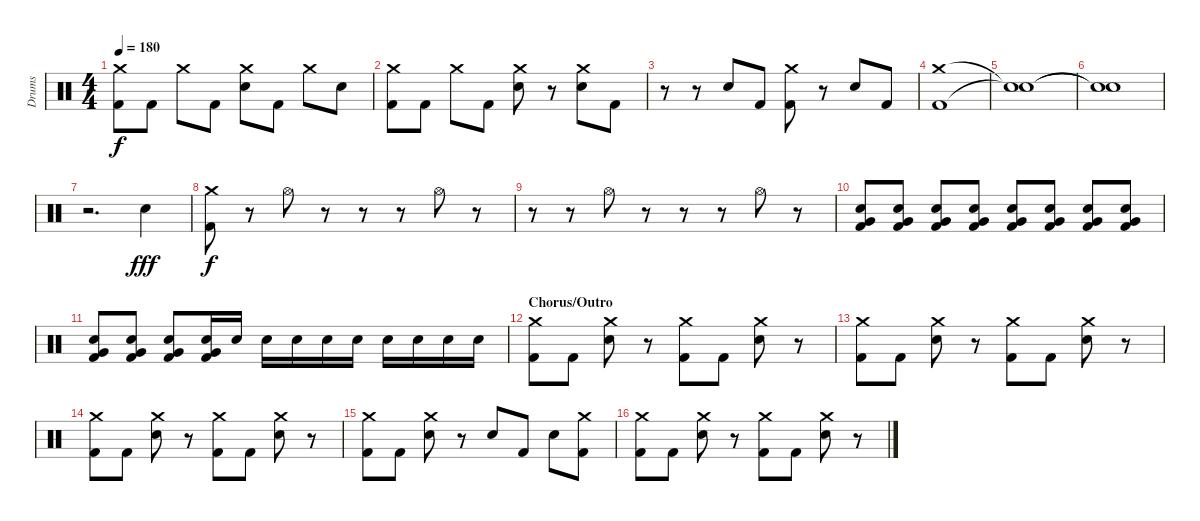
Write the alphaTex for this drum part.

\track ("Drums" "Drums") {instrument percussion}
\staff {score}
\articulation defaults
\ts (4 4)
\tempo 180
\clef neutral
\ks c
("Crash medium (hit)" "Kick (hit) 2").8{dy f} "Kick (hit) 2".8 "Crash medium (hit)".8 "Kick (hit) 2".8 ("Crash medium (hit)" "Electric Snare (hit)").8 "Kick (hit) 2".8 "Crash medium (hit)".8 "Electric Snare (hit)".8 |
("Crash medium (hit)" "Kick (hit) 2").8 "Kick (hit) 2".8 "Crash medium (hit)".8 "Kick (hit) 2".8 ("Crash medium (hit)" "Electric Snare (hit)").8 r.8 ("Crash medium (hit)" "Electric Snare (hit)").8 "Kick (hit) 2".8 |
r.8 r.8 "Electric Snare (hit)".8 "Kick (hit) 2".8 ("Crash medium (hit)" "Kick (hit) 2").8 r.8 "Electric Snare (hit)".8 "Kick (hit) 2".8 |
("Crash medium (hit)" "Kick (hit) 2").1 |
("Snare (hit)"{t} "Snare (hit)"{t}).1 |
("Snare (hit)"{t} "Snare (hit)"{t}).1 |
r.2{d} "Electric Snare (hit)".4{dy fff} |
("Crash medium (hit)" "Kick (hit) 2").8{dy f} r.8 "Hi-Hat (open)".8 r.8 r.8 r.8 "Hi-Hat (open)".8 r.8 |
r.8 r.8 "Hi-Hat (open)".8 r.8 r.8 r.8 "Hi-Hat (open)".8 r.8 |
("Very Low Tom (hit)" "Electric Snare (hit)" "Kick (hit) 2").8 ("Very Low Tom (hit)" "Electric Snare (hit)" "Kick (hit) 2").8 ("Very Low Tom (hit)" "Electric Snare (hit)" "Kick (hit) 2").8 ("Very Low Tom (hit)" "Electric Snare (hit)" "Kick (hit) 2").8 ("Very Low Tom (hit)" "Electric Snare (hit)" "Kick (hit) 2").8 ("Very Low Tom (hit)" "Electric Snare (hit)" "Kick (hit) 2").8 ("Very Low Tom (hit)" "Electric Snare (hit)" "Kick (hit) 2").8 ("Very Low Tom (hit)" "Electric Snare (hit)" "Kick (hit) 2").8 |
("Very Low Tom (hit)" "Electric Snare (hit)" "Kick (hit) 2").8 ("Very Low Tom (hit)" "Electric Snare (hit)" "Kick (hit) 2").8 ("Very Low Tom (hit)" "Electric Snare (hit)" "Kick (hit) 2").8 ("Very Low Tom (hit)" "Electric Snare (hit)" "Kick (hit) 2").16 "Electric Snare (hit)".16 "Electric Snare (hit)".16 "Electric Snare (hit)".16 "Electric Snare (hit)".16 "Electric Snare (hit)".16 "Electric Snare (hit)".16 "Electric Snare (hit)".16 "Electric Snare (hit)".16 "Electric Snare (hit)".16 |
\section ("" "Chorus/Outro")
("Crash medium (hit)" "Kick (hit) 2").8 "Kick (hit) 2".8 ("Crash medium (hit)" "Electric Snare (hit)").8 r.8 ("Crash medium (hit)" "Kick (hit) 2").8 "Kick (hit) 2".8 ("Crash medium (hit)" "Electric Snare (hit)").8 r.8 |
("Crash medium (hit)" "Kick (hit) 2").8 "Kick (hit) 2".8 ("Crash medium (hit)" "Electric Snare (hit)").8 r.8 ("Crash medium (hit)" "Kick (hit) 2").8 "Kick (hit) 2".8 ("Crash medium (hit)" "Electric Snare (hit)").8 r.8 |
("Crash medium (hit)" "Kick (hit) 2").8 "Kick (hit) 2".8 ("Crash medium (hit)" "Electric Snare (hit)").8 r.8 ("Crash medium (hit)" "Kick (hit) 2").8 "Kick (hit) 2".8 ("Crash medium (hit)" "Electric Snare (hit)").8 r.8 |
("Crash medium (hit)" "Kick (hit) 2").8 "Kick (hit) 2".8 ("Crash medium (hit)" "Electric Snare (hit)").8 r.8 "Electric Snare (hit)".8 "Kick (hit) 2".8 "Electric Snare (hit)".8 ("Crash medium (hit)" "Kick (hit) 2").8 |
("Crash medium (hit)" "Kick (hit) 2").8 "Kick (hit) 2".8 ("Crash medium (hit)" "Electric Snare (hit)").8 r.8 ("Crash medium (hit)" "Kick (hit) 2").8 "Kick (hit) 2".8 ("Crash medium (hit)" "Electric Snare (hit)").8 r.8
